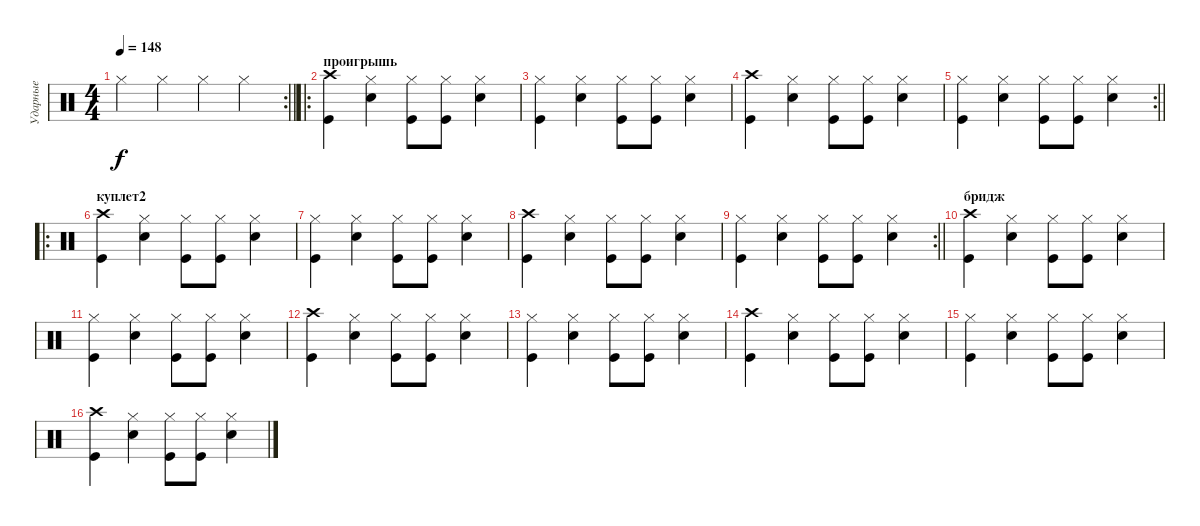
\track ("Ударные" "Ударные") {instrument percussion}
\staff {score}
\articulation defaults
\rc 2
\ts (4 4)
\tempo 148
\clef neutral
\barLineRight lightlight
\ks c "Hi-Hat (closed)".4{dy f} "Hi-Hat (closed)".4 "Hi-Hat (closed)".4 "Hi-Hat (closed)".4
|
\ro
\section ("" "проигрышь")
("Kick (hit)" "Crash high (hit)").4 ("Snare (hit) 2" "Hi-Hat (closed)").4 ("Kick (hit)" "Hi-Hat (closed)").8 ("Kick (hit)" "Hi-Hat (closed)").8 ("Snare (hit) 2" "Hi-Hat (closed)").4 |
("Kick (hit)" "Hi-Hat (closed)").4 ("Snare (hit) 2" "Hi-Hat (closed)").4 ("Kick (hit)" "Hi-Hat (closed)").8 ("Kick (hit)" "Hi-Hat (closed)").8 ("Snare (hit) 2" "Hi-Hat (closed)").4 |
("Kick (hit)" "Crash high (hit)").4 ("Snare (hit) 2" "Hi-Hat (closed)").4 ("Kick (hit)" "Hi-Hat (closed)").8 ("Kick (hit)" "Hi-Hat (closed)").8 ("Snare (hit) 2" "Hi-Hat (closed)").4 |
\rc 2
\barLineRight lightlight
("Kick (hit)" "Hi-Hat (closed)").4 ("Snare (hit) 2" "Hi-Hat (closed)").4 ("Kick (hit)" "Hi-Hat (closed)").8 ("Kick (hit)" "Hi-Hat (closed)").8 ("Snare (hit) 2" "Hi-Hat (closed)").4 |
\ro
\section ("" "куплет2")
("Kick (hit)" "Crash high (hit)").4 ("Snare (hit) 2" "Hi-Hat (closed)").4 ("Kick (hit)" "Hi-Hat (closed)").8 ("Kick (hit)" "Hi-Hat (closed)").8 ("Snare (hit) 2" "Hi-Hat (closed)").4 |
("Kick (hit)" "Hi-Hat (closed)").4 ("Snare (hit) 2" "Hi-Hat (closed)").4 ("Kick (hit)" "Hi-Hat (closed)").8 ("Kick (hit)" "Hi-Hat (closed)").8 ("Snare (hit) 2" "Hi-Hat (closed)").4 |
("Kick (hit)" "Crash high (hit)").4 ("Snare (hit) 2" "Hi-Hat (closed)").4 ("Kick (hit)" "Hi-Hat (closed)").8 ("Kick (hit)" "Hi-Hat (closed)").8 ("Snare (hit) 2" "Hi-Hat (closed)").4 |
\rc 2
\barLineRight lightlight
("Kick (hit)" "Hi-Hat (closed)").4 ("Snare (hit) 2" "Hi-Hat (closed)").4 ("Kick (hit)" "Hi-Hat (closed)").8 ("Kick (hit)" "Hi-Hat (closed)").8 ("Snare (hit) 2" "Hi-Hat (closed)").4 |
\section ("" "бридж")
("Kick (hit)" "Crash high (hit)").4 ("Snare (hit) 2" "Hi-Hat (closed)").4 ("Kick (hit)" "Hi-Hat (closed)").8 ("Kick (hit)" "Hi-Hat (closed)").8 ("Snare (hit) 2" "Hi-Hat (closed)").4 |
("Kick (hit)" "Hi-Hat (closed)").4 ("Snare (hit) 2" "Hi-Hat (closed)").4 ("Kick (hit)" "Hi-Hat (closed)").8 ("Kick (hit)" "Hi-Hat (closed)").8 ("Snare (hit) 2" "Hi-Hat (closed)").4 |
("Kick (hit)" "Crash high (hit)").4 ("Snare (hit) 2" "Hi-Hat (closed)").4 ("Kick (hit)" "Hi-Hat (closed)").8 ("Kick (hit)" "Hi-Hat (closed)").8 ("Snare (hit) 2" "Hi-Hat (closed)").4 |
("Kick (hit)" "Hi-Hat (closed)").4 ("Snare (hit) 2" "Hi-Hat (closed)").4 ("Kick (hit)" "Hi-Hat (closed)").8 ("Kick (hit)" "Hi-Hat (closed)").8 ("Snare (hit) 2" "Hi-Hat (closed)").4 |
("Kick (hit)" "Crash high (hit)").4 ("Snare (hit) 2" "Hi-Hat (closed)").4 ("Kick (hit)" "Hi-Hat (closed)").8 ("Kick (hit)" "Hi-Hat (closed)").8 ("Snare (hit) 2" "Hi-Hat (closed)").4 |
("Kick (hit)" "Hi-Hat (closed)").4 ("Snare (hit) 2" "Hi-Hat (closed)").4 ("Kick (hit)" "Hi-Hat (closed)").8 ("Kick (hit)" "Hi-Hat (closed)").8 ("Snare (hit) 2" "Hi-Hat (closed)").4 |
("Kick (hit)" "Crash high (hit)").4 ("Snare (hit) 2" "Hi-Hat (closed)").4 ("Kick (hit)" "Hi-Hat (closed)").8 ("Kick (hit)" "Hi-Hat (closed)").8 ("Snare (hit) 2" "Hi-Hat (closed)").4
